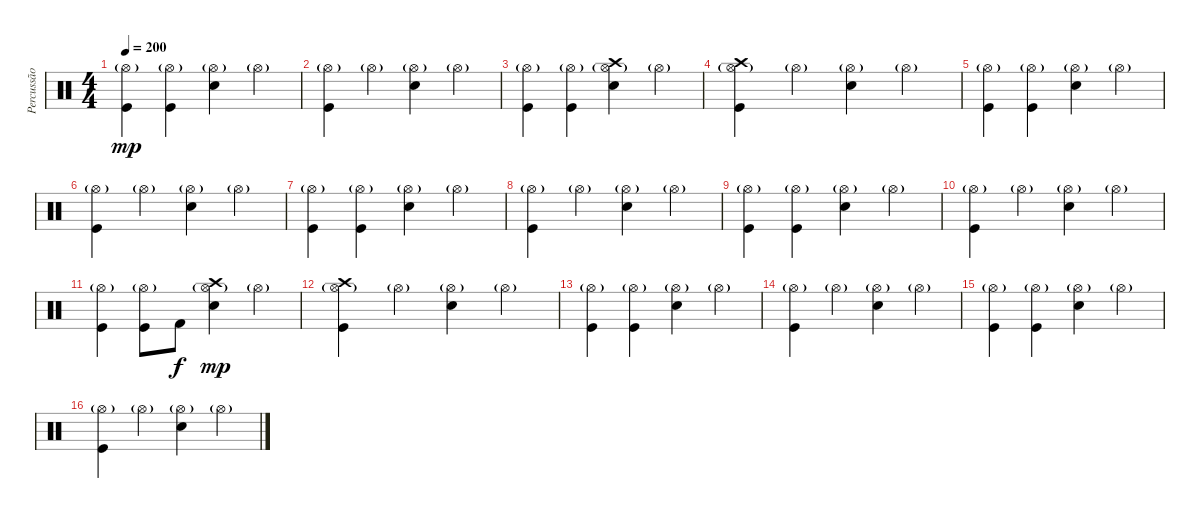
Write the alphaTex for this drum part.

\track ("Percussão" "Percussão") {instrument percussion}
\staff {score}
\articulation defaults
\ts (4 4)
\tempo 200
\clef neutral
\ks c
("Hi-Hat (open)"{g} "Kick (hit)").4{dy mp} ("Hi-Hat (open)"{g} "Kick (hit)").4 ("Hi-Hat (open)"{g} "Electric Snare (hit)").4 "Hi-Hat (open)"{g}.4 |
("Hi-Hat (open)"{g} "Kick (hit)").4 "Hi-Hat (open)"{g}.4 ("Hi-Hat (open)"{g} "Electric Snare (hit)").4 "Hi-Hat (open)"{g}.4 |
("Hi-Hat (open)"{g} "Kick (hit)").4 ("Hi-Hat (open)"{g} "Kick (hit)").4 ("Hi-Hat (open)"{g} "Crash high (hit)" "Electric Snare (hit)").4 "Hi-Hat (open)"{g}.4 |
("Hi-Hat (open)"{g} "Crash high (hit)" "Kick (hit)").4 "Hi-Hat (open)"{g}.4 ("Hi-Hat (open)"{g} "Electric Snare (hit)").4 "Hi-Hat (open)"{g}.4 |
("Hi-Hat (open)"{g} "Kick (hit)").4 ("Hi-Hat (open)"{g} "Kick (hit)").4 ("Hi-Hat (open)"{g} "Electric Snare (hit)").4 "Hi-Hat (open)"{g}.4 |
("Hi-Hat (open)"{g} "Kick (hit)").4 "Hi-Hat (open)"{g}.4 ("Hi-Hat (open)"{g} "Electric Snare (hit)").4 "Hi-Hat (open)"{g}.4 |
("Hi-Hat (open)"{g} "Kick (hit)").4 ("Hi-Hat (open)"{g} "Kick (hit)").4 ("Hi-Hat (open)"{g} "Electric Snare (hit)").4 "Hi-Hat (open)"{g}.4 |
("Hi-Hat (open)"{g} "Kick (hit)").4 "Hi-Hat (open)"{g}.4 ("Hi-Hat (open)"{g} "Electric Snare (hit)").4 "Hi-Hat (open)"{g}.4 |
("Hi-Hat (open)"{g} "Kick (hit)").4 ("Hi-Hat (open)"{g} "Kick (hit)").4 ("Hi-Hat (open)"{g} "Electric Snare (hit)").4 "Hi-Hat (open)"{g}.4 |
("Hi-Hat (open)"{g} "Kick (hit)").4 "Hi-Hat (open)"{g}.4 ("Hi-Hat (open)"{g} "Electric Snare (hit)").4 "Hi-Hat (open)"{g}.4 |
("Hi-Hat (open)"{g} "Kick (hit)").4 ("Hi-Hat (open)"{g} "Kick (hit)").8 "Kick (hit) 2".8{dy f} ("Hi-Hat (open)"{g} "Crash high (hit)" "Electric Snare (hit)").4{dy mp} "Hi-Hat (open)"{g}.4 |
("Hi-Hat (open)"{g} "Crash high (hit)" "Kick (hit)").4 "Hi-Hat (open)"{g}.4 ("Hi-Hat (open)"{g} "Electric Snare (hit)").4 "Hi-Hat (open)"{g}.4 |
("Hi-Hat (open)"{g} "Kick (hit)").4 ("Hi-Hat (open)"{g} "Kick (hit)").4 ("Hi-Hat (open)"{g} "Electric Snare (hit)").4 "Hi-Hat (open)"{g}.4 |
("Hi-Hat (open)"{g} "Kick (hit)").4 "Hi-Hat (open)"{g}.4 ("Hi-Hat (open)"{g} "Electric Snare (hit)").4 "Hi-Hat (open)"{g}.4 |
("Hi-Hat (open)"{g} "Kick (hit)").4 ("Hi-Hat (open)"{g} "Kick (hit)").4 ("Hi-Hat (open)"{g} "Electric Snare (hit)").4 "Hi-Hat (open)"{g}.4 |
("Hi-Hat (open)"{g} "Kick (hit)").4 "Hi-Hat (open)"{g}.4 ("Hi-Hat (open)"{g} "Electric Snare (hit)").4 "Hi-Hat (open)"{g}.4
